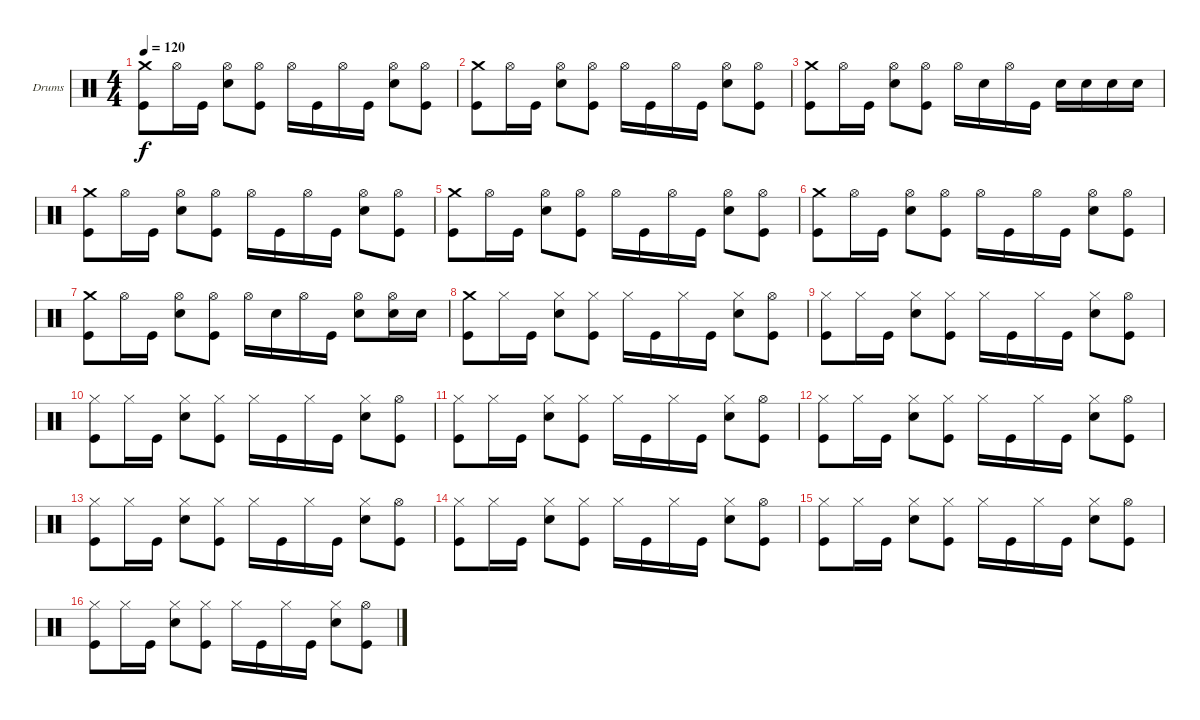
\defaultSystemsLayout 4
\bracketExtendMode nobrackets
\firstSystemTrackNameOrientation horizontal
\otherSystemsTrackNameOrientation horizontal
\track ("Dave Krusen" "Drums") {instrument percussion}
\staff {score}
\articulation defaults
\ts (4 4)
\tempo 120
\clef neutral
\ks c
("Crash medium (hit)" "Kick (hit)").8{dy f} "Hi-Hat (open)".16 "Kick (hit)".16 ("Hi-Hat (open)" "Snare (hit) 2").8 ("Hi-Hat (open)" "Kick (hit)").8 "Hi-Hat (open)".16 "Kick (hit)".16 "Hi-Hat (open)".16 "Kick (hit)".16 ("Hi-Hat (open)" "Snare (hit) 2").8 ("Hi-Hat (open)" "Kick (hit)").8 |
("Crash medium (hit)" "Kick (hit)").8 "Hi-Hat (open)".16 "Kick (hit)".16 ("Hi-Hat (open)" "Snare (hit) 2").8 ("Hi-Hat (open)" "Kick (hit)").8 "Hi-Hat (open)".16 "Kick (hit)".16 "Hi-Hat (open)".16 "Kick (hit)".16 ("Hi-Hat (open)" "Snare (hit) 2").8 ("Hi-Hat (open)" "Kick (hit)").8 |
("Crash medium (hit)" "Kick (hit)").8 "Hi-Hat (open)".16 "Kick (hit)".16 ("Hi-Hat (open)" "Snare (hit) 2").8 ("Hi-Hat (open)" "Kick (hit)").8 "Hi-Hat (open)".16 "Snare (hit) 2".16 "Hi-Hat (open)".16 "Kick (hit)".16 "Snare (hit) 2".16 "Snare (hit) 2".16 "Snare (hit) 2".16 "Snare (hit) 2".16 |
("Crash medium (hit)" "Kick (hit)").8 "Hi-Hat (open)".16 "Kick (hit)".16 ("Hi-Hat (open)" "Snare (hit) 2").8 ("Hi-Hat (open)" "Kick (hit)").8 "Hi-Hat (open)".16 "Kick (hit)".16 "Hi-Hat (open)".16 "Kick (hit)".16 ("Hi-Hat (open)" "Snare (hit) 2").8 ("Hi-Hat (open)" "Kick (hit)").8 |
("Crash medium (hit)" "Kick (hit)").8 "Hi-Hat (open)".16 "Kick (hit)".16 ("Hi-Hat (open)" "Snare (hit) 2").8 ("Hi-Hat (open)" "Kick (hit)").8 "Hi-Hat (open)".16 "Kick (hit)".16 "Hi-Hat (open)".16 "Kick (hit)".16 ("Hi-Hat (open)" "Snare (hit) 2").8 ("Hi-Hat (open)" "Kick (hit)").8 |
("Crash medium (hit)" "Kick (hit)").8 "Hi-Hat (open)".16 "Kick (hit)".16 ("Hi-Hat (open)" "Snare (hit) 2").8 ("Hi-Hat (open)" "Kick (hit)").8 "Hi-Hat (open)".16 "Kick (hit)".16 "Hi-Hat (open)".16 "Kick (hit)".16 ("Hi-Hat (open)" "Snare (hit) 2").8 ("Hi-Hat (open)" "Kick (hit)").8 |
("Crash medium (hit)" "Kick (hit)").8 "Hi-Hat (open)".16 "Kick (hit)".16 ("Hi-Hat (open)" "Snare (hit) 2").8 ("Hi-Hat (open)" "Kick (hit)").8 "Hi-Hat (open)".16 "Snare (hit) 2".16 "Hi-Hat (open)".16 "Kick (hit)".16 ("Hi-Hat (open)" "Snare (hit) 2").8 ("Hi-Hat (open)" "Snare (hit) 2").16 "Snare (hit) 2".16 |
("Crash medium (hit)" "Kick (hit)").8 "Hi-Hat (closed)".16 "Kick (hit)".16 ("Hi-Hat (closed)" "Snare (hit) 2").8 ("Hi-Hat (closed)" "Kick (hit)").8 "Hi-Hat (closed)".16 "Kick (hit)".16 "Hi-Hat (closed)".16 "Kick (hit)".16 ("Hi-Hat (closed)" "Snare (hit) 2").8 ("Hi-Hat (open)" "Kick (hit)").8 |
("Hi-Hat (closed)" "Kick (hit)").8 "Hi-Hat (closed)".16 "Kick (hit)".16 ("Hi-Hat (closed)" "Snare (hit) 2").8 ("Hi-Hat (closed)" "Kick (hit)").8 "Hi-Hat (closed)".16 "Kick (hit)".16 "Hi-Hat (closed)".16 "Kick (hit)".16 ("Hi-Hat (closed)" "Snare (hit) 2").8 ("Hi-Hat (open)" "Kick (hit)").8 |
("Hi-Hat (closed)" "Kick (hit)").8 "Hi-Hat (closed)".16 "Kick (hit)".16 ("Hi-Hat (closed)" "Snare (hit) 2").8 ("Hi-Hat (closed)" "Kick (hit)").8 "Hi-Hat (closed)".16 "Kick (hit)".16 "Hi-Hat (closed)".16 "Kick (hit)".16 ("Hi-Hat (closed)" "Snare (hit) 2").8 ("Hi-Hat (open)" "Kick (hit)").8 |
("Hi-Hat (closed)" "Kick (hit)").8 "Hi-Hat (closed)".16 "Kick (hit)".16 ("Hi-Hat (closed)" "Snare (hit) 2").8 ("Hi-Hat (closed)" "Kick (hit)").8 "Hi-Hat (closed)".16 "Kick (hit)".16 "Hi-Hat (closed)".16 "Kick (hit)".16 ("Hi-Hat (closed)" "Snare (hit) 2").8 ("Hi-Hat (open)" "Kick (hit)").8 |
("Hi-Hat (closed)" "Kick (hit)").8 "Hi-Hat (closed)".16 "Kick (hit)".16 ("Hi-Hat (closed)" "Snare (hit) 2").8 ("Hi-Hat (closed)" "Kick (hit)").8 "Hi-Hat (closed)".16 "Kick (hit)".16 "Hi-Hat (closed)".16 "Kick (hit)".16 ("Hi-Hat (closed)" "Snare (hit) 2").8 ("Hi-Hat (open)" "Kick (hit)").8 |
("Hi-Hat (closed)" "Kick (hit)").8 "Hi-Hat (closed)".16 "Kick (hit)".16 ("Hi-Hat (closed)" "Snare (hit) 2").8 ("Hi-Hat (closed)" "Kick (hit)").8 "Hi-Hat (closed)".16 "Kick (hit)".16 "Hi-Hat (closed)".16 "Kick (hit)".16 ("Hi-Hat (closed)" "Snare (hit) 2").8 ("Hi-Hat (open)" "Kick (hit)").8 |
("Hi-Hat (closed)" "Kick (hit)").8 "Hi-Hat (closed)".16 "Kick (hit)".16 ("Hi-Hat (closed)" "Snare (hit) 2").8 ("Hi-Hat (closed)" "Kick (hit)").8 "Hi-Hat (closed)".16 "Kick (hit)".16 "Hi-Hat (closed)".16 "Kick (hit)".16 ("Hi-Hat (closed)" "Snare (hit) 2").8 ("Hi-Hat (open)" "Kick (hit)").8 |
("Hi-Hat (closed)" "Kick (hit)").8 "Hi-Hat (closed)".16 "Kick (hit)".16 ("Hi-Hat (closed)" "Snare (hit) 2").8 ("Hi-Hat (closed)" "Kick (hit)").8 "Hi-Hat (closed)".16 "Kick (hit)".16 "Hi-Hat (closed)".16 "Kick (hit)".16 ("Hi-Hat (closed)" "Snare (hit) 2").8 ("Hi-Hat (open)" "Kick (hit)").8 |
("Hi-Hat (closed)" "Kick (hit)").8 "Hi-Hat (closed)".16 "Kick (hit)".16 ("Hi-Hat (closed)" "Snare (hit) 2").8 ("Hi-Hat (closed)" "Kick (hit)").8 "Hi-Hat (closed)".16 "Kick (hit)".16 "Hi-Hat (closed)".16 "Kick (hit)".16 ("Hi-Hat (closed)" "Snare (hit) 2").8 ("Hi-Hat (open)" "Kick (hit)").8
